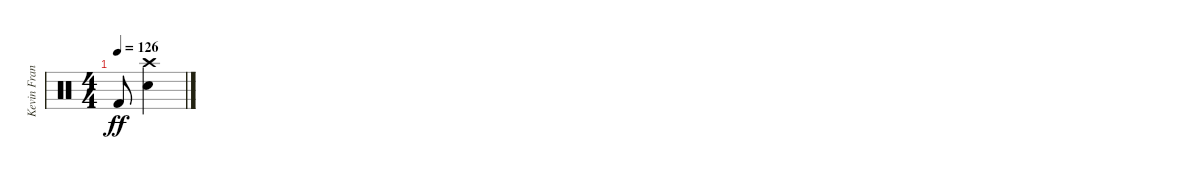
\track ("Kevin Frank" "Kevin Fran") {instrument percussion}
\staff
\articulation defaults
\ts (4 4)
\tempo 126
\clef neutral
\ks c "Kick (hit) 2".8{dy ff}
("Crash high (hit)" "Snare (hit) 2").4
